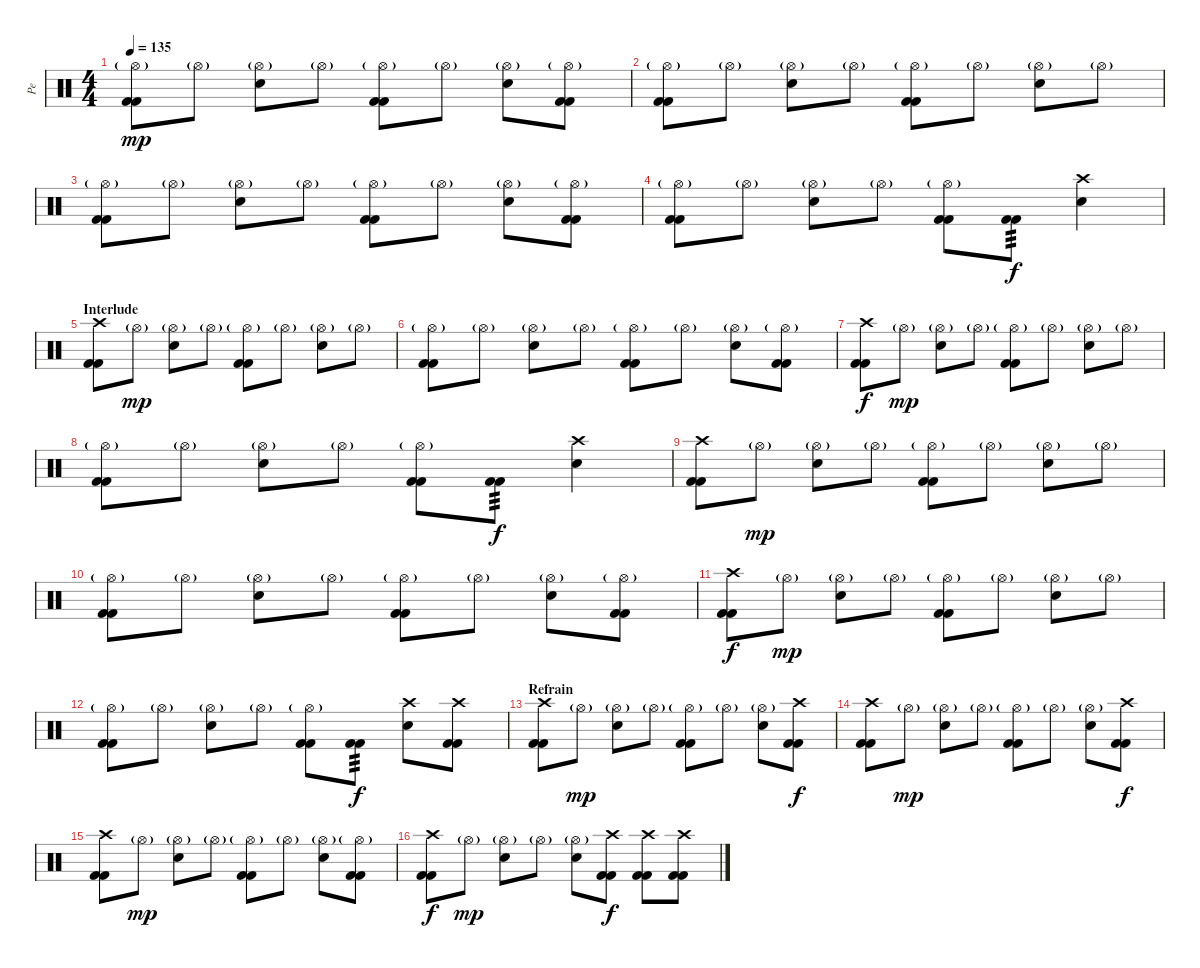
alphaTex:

\track ("Pe" "Pe") {instrument percussion}
\staff {score}
\articulation defaults
\ts (4 4)
\tempo 135
\clef neutral
\ks c
("Hi-Hat (open)"{g} "Kick (hit) 2" "Kick (hit) 2").8{dy mp} "Hi-Hat (open)"{g}.8 ("Electric Snare (hit)" "Hi-Hat (open)"{g}).8 "Hi-Hat (open)"{g}.8 ("Hi-Hat (open)"{g} "Kick (hit) 2" "Kick (hit) 2").8 "Hi-Hat (open)"{g}.8 ("Electric Snare (hit)" "Hi-Hat (open)"{g}).8 ("Kick (hit) 2" "Kick (hit) 2" "Hi-Hat (open)"{g}).8 |
("Kick (hit) 2" "Kick (hit) 2" "Hi-Hat (open)"{g}).8 "Hi-Hat (open)"{g}.8 ("Hi-Hat (open)"{g} "Electric Snare (hit)").8 "Hi-Hat (open)"{g}.8 ("Hi-Hat (open)"{g} "Kick (hit) 2" "Kick (hit) 2").8 "Hi-Hat (open)"{g}.8 ("Electric Snare (hit)" "Hi-Hat (open)"{g}).8 "Hi-Hat (open)"{g}.8 |
("Hi-Hat (open)"{g} "Kick (hit) 2" "Kick (hit) 2").8 "Hi-Hat (open)"{g}.8 ("Electric Snare (hit)" "Hi-Hat (open)"{g}).8 "Hi-Hat (open)"{g}.8 ("Hi-Hat (open)"{g} "Kick (hit) 2" "Kick (hit) 2").8 "Hi-Hat (open)"{g}.8 ("Electric Snare (hit)" "Hi-Hat (open)"{g}).8 ("Kick (hit) 2" "Kick (hit) 2" "Hi-Hat (open)"{g}).8 |
("Hi-Hat (open)"{g} "Kick (hit) 2" "Kick (hit) 2").8 "Hi-Hat (open)"{g}.8 ("Electric Snare (hit)" "Hi-Hat (open)"{g}).8 "Hi-Hat (open)"{g}.8 ("Hi-Hat (open)"{g} "Kick (hit) 2" "Kick (hit) 2").8 ("Kick (hit) 2" "Kick (hit) 2").8{tp 3 dy f} ("Electric Snare (hit)" "Crash high (hit)").4 |
\section ("" "Interlude")
("Crash high (hit)" "Kick (hit) 2" "Kick (hit) 2").8 "Hi-Hat (open)"{g}.8{dy mp} ("Electric Snare (hit)" "Hi-Hat (open)"{g}).8 "Hi-Hat (open)"{g}.8 ("Hi-Hat (open)"{g} "Kick (hit) 2" "Kick (hit) 2").8 "Hi-Hat (open)"{g}.8 ("Electric Snare (hit)" "Hi-Hat (open)"{g}).8 "Hi-Hat (open)"{g}.8 |
("Hi-Hat (open)"{g} "Kick (hit) 2" "Kick (hit) 2").8 "Hi-Hat (open)"{g}.8 ("Electric Snare (hit)" "Hi-Hat (open)"{g}).8 "Hi-Hat (open)"{g}.8 ("Hi-Hat (open)"{g} "Kick (hit) 2" "Kick (hit) 2").8 "Hi-Hat (open)"{g}.8 ("Electric Snare (hit)" "Hi-Hat (open)"{g}).8 ("Kick (hit) 2" "Kick (hit) 2" "Hi-Hat (open)"{g}).8 |
("Crash high (hit)" "Kick (hit) 2" "Kick (hit) 2").8{dy f} "Hi-Hat (open)"{g}.8{dy mp} ("Electric Snare (hit)" "Hi-Hat (open)"{g}).8 "Hi-Hat (open)"{g}.8 ("Hi-Hat (open)"{g} "Kick (hit) 2" "Kick (hit) 2").8 "Hi-Hat (open)"{g}.8 ("Electric Snare (hit)" "Hi-Hat (open)"{g}).8 "Hi-Hat (open)"{g}.8 |
("Hi-Hat (open)"{g} "Kick (hit) 2" "Kick (hit) 2").8 "Hi-Hat (open)"{g}.8 ("Electric Snare (hit)" "Hi-Hat (open)"{g}).8 "Hi-Hat (open)"{g}.8 ("Hi-Hat (open)"{g} "Kick (hit) 2" "Kick (hit) 2").8 ("Kick (hit) 2" "Kick (hit) 2").8{tp 3 dy f} ("Electric Snare (hit)" "Crash high (hit)").4 |
("Crash high (hit)" "Kick (hit) 2" "Kick (hit) 2").8 "Hi-Hat (open)"{g}.8{dy mp} ("Electric Snare (hit)" "Hi-Hat (open)"{g}).8 "Hi-Hat (open)"{g}.8 ("Hi-Hat (open)"{g} "Kick (hit) 2" "Kick (hit) 2").8 "Hi-Hat (open)"{g}.8 ("Electric Snare (hit)" "Hi-Hat (open)"{g}).8 "Hi-Hat (open)"{g}.8 |
("Hi-Hat (open)"{g} "Kick (hit) 2" "Kick (hit) 2").8 "Hi-Hat (open)"{g}.8 ("Electric Snare (hit)" "Hi-Hat (open)"{g}).8 "Hi-Hat (open)"{g}.8 ("Hi-Hat (open)"{g} "Kick (hit) 2" "Kick (hit) 2").8 "Hi-Hat (open)"{g}.8 ("Electric Snare (hit)" "Hi-Hat (open)"{g}).8 ("Kick (hit) 2" "Kick (hit) 2" "Hi-Hat (open)"{g}).8 |
("Crash high (hit)" "Kick (hit) 2" "Kick (hit) 2").8{dy f} "Hi-Hat (open)"{g}.8{dy mp} ("Electric Snare (hit)" "Hi-Hat (open)"{g}).8 "Hi-Hat (open)"{g}.8 ("Hi-Hat (open)"{g} "Kick (hit) 2" "Kick (hit) 2").8 "Hi-Hat (open)"{g}.8 ("Electric Snare (hit)" "Hi-Hat (open)"{g}).8 "Hi-Hat (open)"{g}.8 |
("Hi-Hat (open)"{g} "Kick (hit) 2" "Kick (hit) 2").8 "Hi-Hat (open)"{g}.8 ("Electric Snare (hit)" "Hi-Hat (open)"{g}).8 "Hi-Hat (open)"{g}.8 ("Hi-Hat (open)"{g} "Kick (hit) 2" "Kick (hit) 2").8 ("Kick (hit) 2" "Kick (hit) 2").8{tp 3 dy f} ("Electric Snare (hit)" "Crash high (hit)").8 ("Crash high (hit)" "Kick (hit) 2" "Kick (hit) 2").8 |
\section ("" "Refrain")
("Crash high (hit)" "Kick (hit) 2" "Kick (hit) 2").8 "Hi-Hat (open)"{g}.8{dy mp} ("Electric Snare (hit)" "Hi-Hat (open)"{g}).8 "Hi-Hat (open)"{g}.8 ("Hi-Hat (open)"{g} "Kick (hit) 2" "Kick (hit) 2").8 "Hi-Hat (open)"{g}.8 ("Electric Snare (hit)" "Hi-Hat (open)"{g}).8 ("Crash high (hit)" "Kick (hit) 2" "Kick (hit) 2").8{dy f} |
("Crash high (hit)" "Kick (hit) 2" "Kick (hit) 2").8 "Hi-Hat (open)"{g}.8{dy mp} ("Electric Snare (hit)" "Hi-Hat (open)"{g}).8 "Hi-Hat (open)"{g}.8 ("Hi-Hat (open)"{g} "Kick (hit) 2" "Kick (hit) 2").8 "Hi-Hat (open)"{g}.8 ("Electric Snare (hit)" "Hi-Hat (open)"{g}).8 ("Crash high (hit)" "Kick (hit) 2" "Kick (hit) 2").8{dy f} |
("Crash high (hit)" "Kick (hit) 2" "Kick (hit) 2").8 "Hi-Hat (open)"{g}.8{dy mp} ("Electric Snare (hit)" "Hi-Hat (open)"{g}).8 "Hi-Hat (open)"{g}.8 ("Hi-Hat (open)"{g} "Kick (hit) 2" "Kick (hit) 2").8 "Hi-Hat (open)"{g}.8 ("Electric Snare (hit)" "Hi-Hat (open)"{g}).8 ("Kick (hit) 2" "Kick (hit) 2" "Hi-Hat (open)"{g}).8 |
("Crash high (hit)" "Kick (hit) 2" "Kick (hit) 2").8{dy f} "Hi-Hat (open)"{g}.8{dy mp} ("Electric Snare (hit)" "Hi-Hat (open)"{g}).8 "Hi-Hat (open)"{g}.8 ("Hi-Hat (open)"{g} "Electric Snare (hit)").8 ("Kick (hit) 2" "Kick (hit) 2" "Crash high (hit)").8{dy f} ("Crash high (hit)" "Kick (hit) 2" "Kick (hit) 2").8 ("Crash high (hit)" "Kick (hit) 2" "Kick (hit) 2").8
